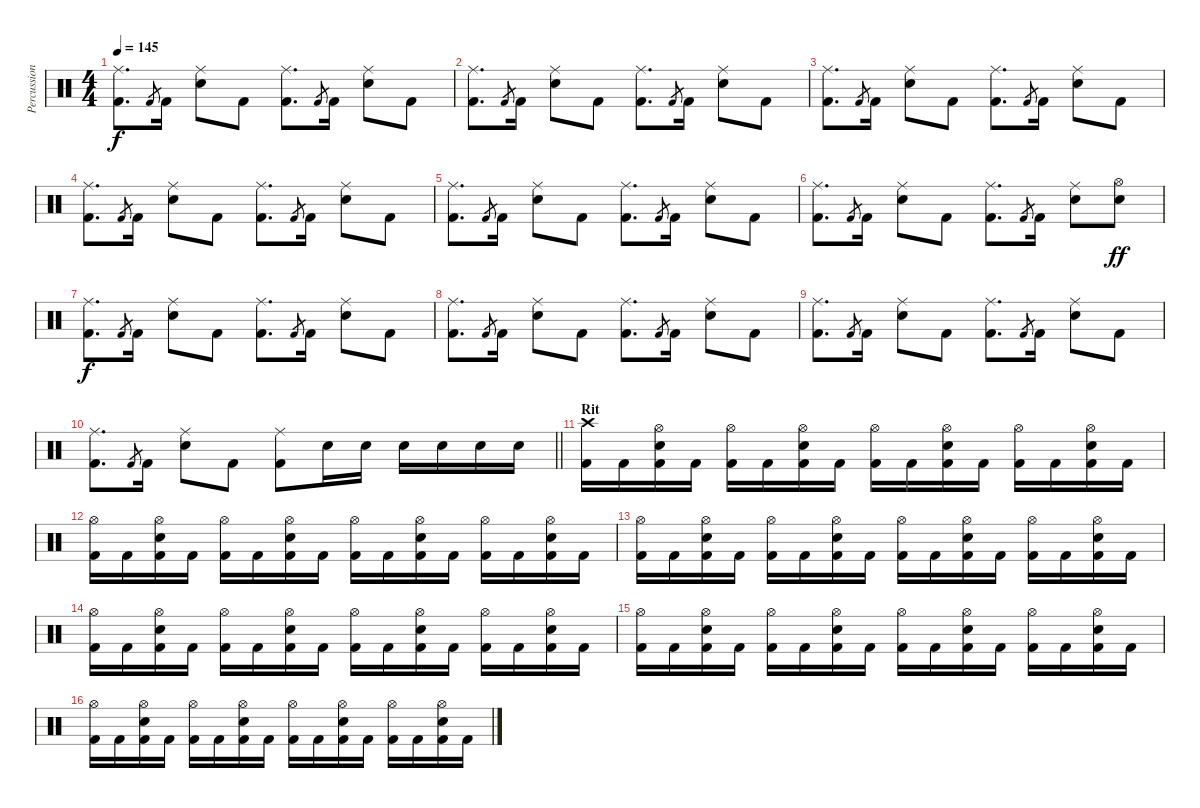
\track ("Percussioni" "Percussion") {instrument percussion}
\staff {score}
\articulation defaults
\ts (4 4)
\tempo 145
\clef neutral
\ks c
("Ride (middle)" "Kick (hit) 2").8{d dy f} "Kick (hit) 2".8{gr} "Kick (hit) 2".16 ("Ride (middle)" "Snare (hit) 2").8 "Kick (hit) 2".8 ("Ride (middle)" "Kick (hit) 2").8{d} "Kick (hit) 2".8{gr} "Kick (hit) 2".16 ("Ride (middle)" "Snare (hit) 2").8 "Kick (hit) 2".8 |
("Ride (middle)" "Kick (hit) 2").8{d} "Kick (hit) 2".8{gr} "Kick (hit) 2".16 ("Ride (middle)" "Snare (hit) 2").8 "Kick (hit) 2".8 ("Ride (middle)" "Kick (hit) 2").8{d} "Kick (hit) 2".8{gr} "Kick (hit) 2".16 ("Ride (middle)" "Snare (hit) 2").8 "Kick (hit) 2".8 |
("Ride (middle)" "Kick (hit) 2").8{d} "Kick (hit) 2".8{gr} "Kick (hit) 2".16 ("Ride (middle)" "Snare (hit) 2").8 "Kick (hit) 2".8 ("Ride (middle)" "Kick (hit) 2").8{d} "Kick (hit) 2".8{gr} "Kick (hit) 2".16 ("Ride (middle)" "Snare (hit) 2").8 "Kick (hit) 2".8 |
("Ride (middle)" "Kick (hit) 2").8{d} "Kick (hit) 2".8{gr} "Kick (hit) 2".16 ("Ride (middle)" "Snare (hit) 2").8 "Kick (hit) 2".8 ("Ride (middle)" "Kick (hit) 2").8{d} "Kick (hit) 2".8{gr} "Kick (hit) 2".16 ("Ride (middle)" "Snare (hit) 2").8 "Kick (hit) 2".8 |
("Ride (middle)" "Kick (hit) 2").8{d} "Kick (hit) 2".8{gr} "Kick (hit) 2".16 ("Ride (middle)" "Snare (hit) 2").8 "Kick (hit) 2".8 ("Ride (middle)" "Kick (hit) 2").8{d} "Kick (hit) 2".8{gr} "Kick (hit) 2".16 ("Ride (middle)" "Snare (hit) 2").8 "Kick (hit) 2".8 |
("Ride (middle)" "Kick (hit) 2").8{d} "Kick (hit) 2".8{gr} "Kick (hit) 2".16 ("Ride (middle)" "Snare (hit) 2").8 "Kick (hit) 2".8 ("Ride (middle)" "Kick (hit) 2").8{d} "Kick (hit) 2".8{gr} "Kick (hit) 2".16 ("Ride (middle)" "Snare (hit) 2").8 ("Hi-Hat (open)" "Snare (hit) 2").8{dy ff} |
("Ride (middle)" "Kick (hit) 2").8{d dy f} "Kick (hit) 2".8{gr} "Kick (hit) 2".16 ("Ride (middle)" "Snare (hit) 2").8 "Kick (hit) 2".8 ("Ride (middle)" "Kick (hit) 2").8{d} "Kick (hit) 2".8{gr} "Kick (hit) 2".16 ("Ride (middle)" "Snare (hit) 2").8 "Kick (hit) 2".8 |
("Ride (middle)" "Kick (hit) 2").8{d} "Kick (hit) 2".8{gr} "Kick (hit) 2".16 ("Ride (middle)" "Snare (hit) 2").8 "Kick (hit) 2".8 ("Ride (middle)" "Kick (hit) 2").8{d} "Kick (hit) 2".8{gr} "Kick (hit) 2".16 ("Ride (middle)" "Snare (hit) 2").8 "Kick (hit) 2".8 |
("Ride (middle)" "Kick (hit) 2").8{d} "Kick (hit) 2".8{gr} "Kick (hit) 2".16 ("Ride (middle)" "Snare (hit) 2").8 "Kick (hit) 2".8 ("Ride (middle)" "Kick (hit) 2").8{d} "Kick (hit) 2".8{gr} "Kick (hit) 2".16 ("Ride (middle)" "Snare (hit) 2").8 "Kick (hit) 2".8 |
\barLineRight lightlight
("Ride (middle)" "Kick (hit) 2").8{d} "Kick (hit) 2".8{gr} "Kick (hit) 2".16 ("Ride (middle)" "Snare (hit) 2").8 "Kick (hit) 2".8 ("Ride (middle)" "Kick (hit) 2").8 "Snare (hit) 2".16 "Snare (hit) 2".16 "Snare (hit) 2".16 "Snare (hit) 2".16 "Snare (hit) 2".16 "Snare (hit) 2".16 |
\section ("" "Rit")
("Crash high (hit)" "Kick (hit) 2").16 "Kick (hit) 2".16 ("Hi-Hat (open)" "Kick (hit) 2" "Snare (hit) 2").16 "Kick (hit) 2".16 ("Hi-Hat (open)" "Kick (hit) 2").16 "Kick (hit) 2".16 ("Hi-Hat (open)" "Kick (hit) 2" "Snare (hit) 2").16 "Kick (hit) 2".16 ("Hi-Hat (open)" "Kick (hit) 2").16 "Kick (hit) 2".16 ("Hi-Hat (open)" "Kick (hit) 2" "Snare (hit) 2").16 "Kick (hit) 2".16 ("Hi-Hat (open)" "Kick (hit) 2").16 "Kick (hit) 2".16 ("Hi-Hat (open)" "Kick (hit) 2" "Snare (hit) 2").16 "Kick (hit) 2".16 |
("Hi-Hat (open)" "Kick (hit) 2").16 "Kick (hit) 2".16 ("Hi-Hat (open)" "Kick (hit) 2" "Snare (hit) 2").16 "Kick (hit) 2".16 ("Hi-Hat (open)" "Kick (hit) 2").16 "Kick (hit) 2".16 ("Hi-Hat (open)" "Kick (hit) 2" "Snare (hit) 2").16 "Kick (hit) 2".16 ("Hi-Hat (open)" "Kick (hit) 2").16 "Kick (hit) 2".16 ("Hi-Hat (open)" "Kick (hit) 2" "Snare (hit) 2").16 "Kick (hit) 2".16 ("Hi-Hat (open)" "Kick (hit) 2").16 "Kick (hit) 2".16 ("Hi-Hat (open)" "Kick (hit) 2" "Snare (hit) 2").16 "Kick (hit) 2".16 |
("Hi-Hat (open)" "Kick (hit) 2").16 "Kick (hit) 2".16 ("Hi-Hat (open)" "Kick (hit) 2" "Snare (hit) 2").16 "Kick (hit) 2".16 ("Hi-Hat (open)" "Kick (hit) 2").16 "Kick (hit) 2".16 ("Hi-Hat (open)" "Kick (hit) 2" "Snare (hit) 2").16 "Kick (hit) 2".16 ("Hi-Hat (open)" "Kick (hit) 2").16 "Kick (hit) 2".16 ("Hi-Hat (open)" "Kick (hit) 2" "Snare (hit) 2").16 "Kick (hit) 2".16 ("Hi-Hat (open)" "Kick (hit) 2").16 "Kick (hit) 2".16 ("Hi-Hat (open)" "Kick (hit) 2" "Snare (hit) 2").16 "Kick (hit) 2".16 |
("Hi-Hat (open)" "Kick (hit) 2").16 "Kick (hit) 2".16 ("Hi-Hat (open)" "Kick (hit) 2" "Snare (hit) 2").16 "Kick (hit) 2".16 ("Hi-Hat (open)" "Kick (hit) 2").16 "Kick (hit) 2".16 ("Hi-Hat (open)" "Kick (hit) 2" "Snare (hit) 2").16 "Kick (hit) 2".16 ("Hi-Hat (open)" "Kick (hit) 2").16 "Kick (hit) 2".16 ("Hi-Hat (open)" "Kick (hit) 2" "Snare (hit) 2").16 "Kick (hit) 2".16 ("Hi-Hat (open)" "Kick (hit) 2").16 "Kick (hit) 2".16 ("Hi-Hat (open)" "Kick (hit) 2" "Snare (hit) 2").16 "Kick (hit) 2".16 |
("Hi-Hat (open)" "Kick (hit) 2").16 "Kick (hit) 2".16 ("Hi-Hat (open)" "Kick (hit) 2" "Snare (hit) 2").16 "Kick (hit) 2".16 ("Hi-Hat (open)" "Kick (hit) 2").16 "Kick (hit) 2".16 ("Hi-Hat (open)" "Kick (hit) 2" "Snare (hit) 2").16 "Kick (hit) 2".16 ("Hi-Hat (open)" "Kick (hit) 2").16 "Kick (hit) 2".16 ("Hi-Hat (open)" "Kick (hit) 2" "Snare (hit) 2").16 "Kick (hit) 2".16 ("Hi-Hat (open)" "Kick (hit) 2").16 "Kick (hit) 2".16 ("Hi-Hat (open)" "Kick (hit) 2" "Snare (hit) 2").16 "Kick (hit) 2".16 |
("Hi-Hat (open)" "Kick (hit) 2").16 "Kick (hit) 2".16 ("Hi-Hat (open)" "Kick (hit) 2" "Snare (hit) 2").16 "Kick (hit) 2".16 ("Hi-Hat (open)" "Kick (hit) 2").16 "Kick (hit) 2".16 ("Hi-Hat (open)" "Kick (hit) 2" "Snare (hit) 2").16 "Kick (hit) 2".16 ("Hi-Hat (open)" "Kick (hit) 2").16 "Kick (hit) 2".16 ("Hi-Hat (open)" "Kick (hit) 2" "Snare (hit) 2").16 "Kick (hit) 2".16 ("Hi-Hat (open)" "Kick (hit) 2").16 "Kick (hit) 2".16 ("Hi-Hat (open)" "Kick (hit) 2" "Snare (hit) 2").16 "Kick (hit) 2".16
